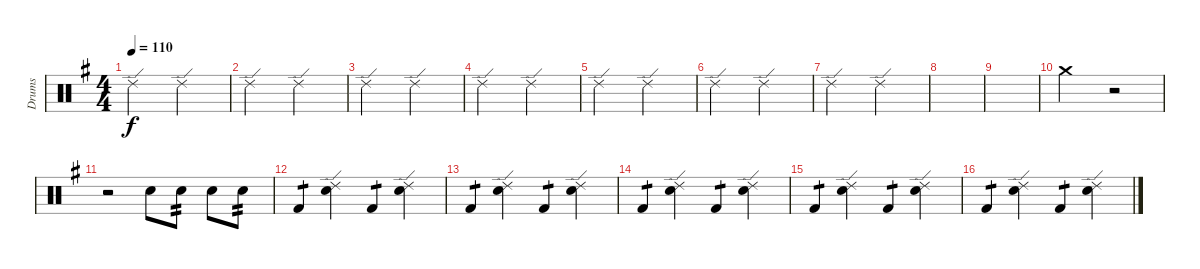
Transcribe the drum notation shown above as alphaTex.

\track ("Drums" "Drums") {instrument percussion}
\staff {score}
\articulation defaults
\ts (4 4)
\tempo 110
\clef neutral
\ks g "Ride (edge) 2".2{dy f} "Ride (edge) 2".2
|
"Ride (edge) 2".2 "Ride (edge) 2".2 |
"Ride (edge) 2".2 "Ride (edge) 2".2 |
"Ride (edge) 2".2 "Ride (edge) 2".2 |
"Ride (edge) 2".2 "Ride (edge) 2".2 |
"Ride (edge) 2".2 "Ride (edge) 2".2 |
"Ride (edge) 2".2 "Ride (edge) 2".2 |
|
|
"Crash medium (hit)".2 r.2 |
r.2 "Snare (hit) 2".8 "Snare (hit) 2".8{tp 2} "Snare (hit) 2".8 "Snare (hit) 2".8{tp 2} |
"Kick (hit) 2".4{tp 1} ("Ride (edge) 2" "Snare (hit) 2").4 "Kick (hit) 2".4{tp 1} ("Ride (edge) 2" "Snare (hit) 2").4 |
"Kick (hit) 2".4{tp 1} ("Ride (edge) 2" "Snare (hit) 2").4 "Kick (hit) 2".4{tp 1} ("Ride (edge) 2" "Snare (hit) 2").4 |
"Kick (hit) 2".4{tp 1} ("Ride (edge) 2" "Snare (hit) 2").4 "Kick (hit) 2".4{tp 1} ("Ride (edge) 2" "Snare (hit) 2").4 |
"Kick (hit) 2".4{tp 1} ("Ride (edge) 2" "Snare (hit) 2").4 "Kick (hit) 2".4{tp 1} ("Ride (edge) 2" "Snare (hit) 2").4 |
"Kick (hit) 2".4{tp 1} ("Ride (edge) 2" "Snare (hit) 2").4 "Kick (hit) 2".4{tp 1} ("Ride (edge) 2" "Snare (hit) 2").4
